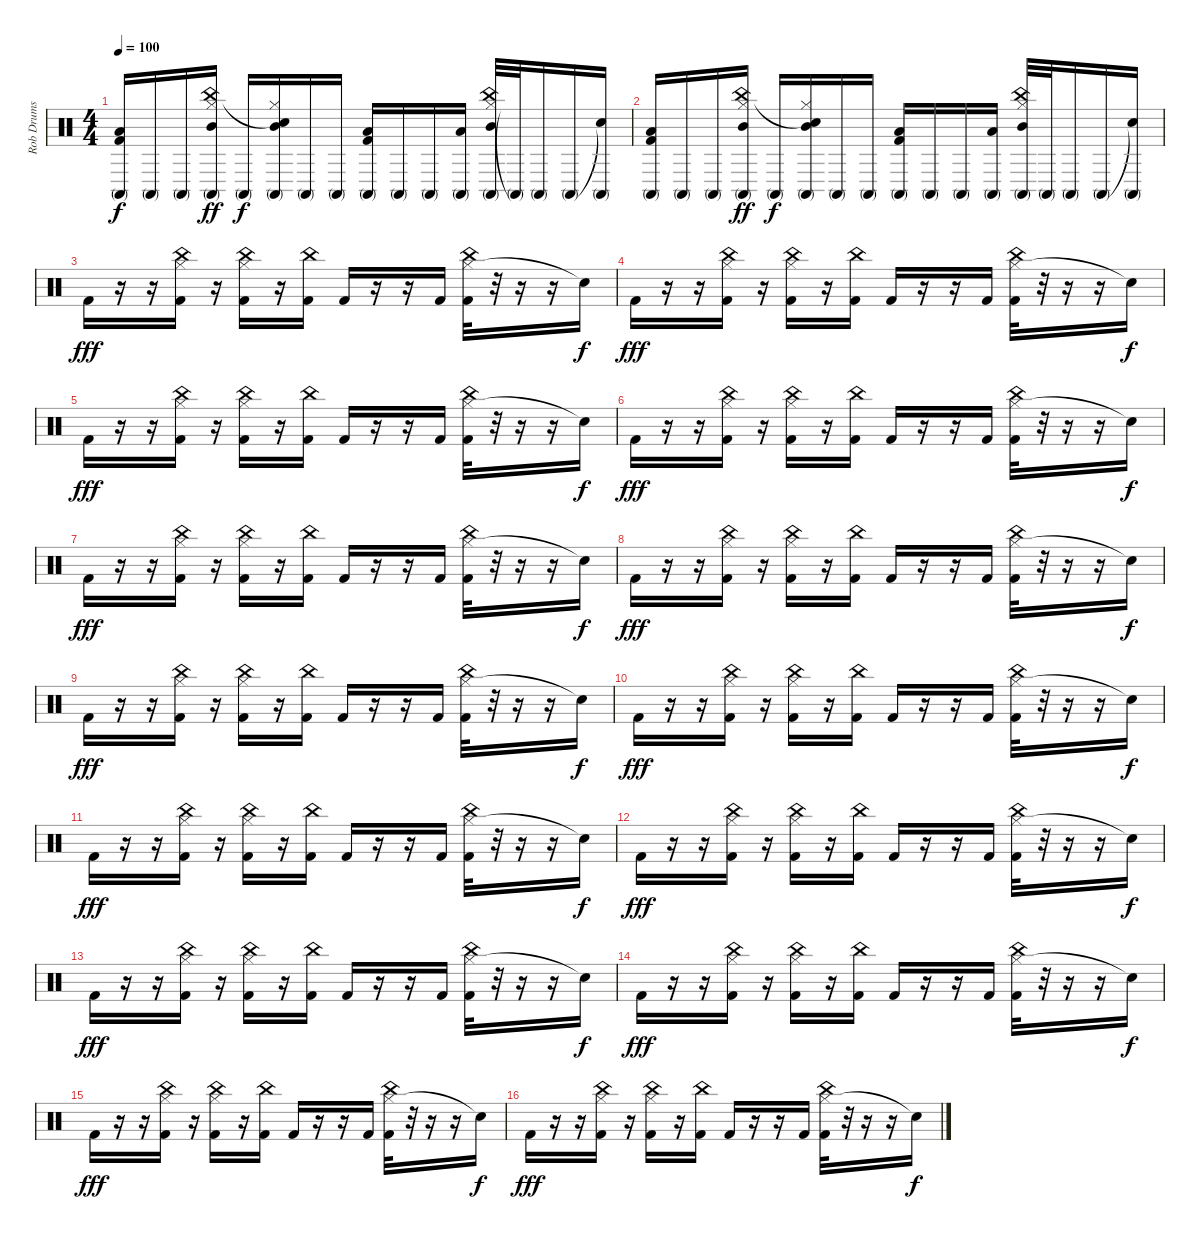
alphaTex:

\track ("Rob Drums" "Rob Drums") {instrument percussion}
\staff {score}
\articulation defaults
\ts (4 4)
\tempo 100
\clef neutral
\ks c
("Kick (hit) 2" "Low Tom (hit)" "Conga high (mute)").16{dy f} "Conga high (mute)".16 "Conga high (mute)".16 ("Hi-Hat (closed)" "China (hit)" "Mid Tom (hit)" "Conga high (mute)").16{dy ff} "Conga high (mute)".16{dy f} ("Hi-Hat (closed)" "Snare (hit)"{t} "Mid Tom (hit)" "Conga high (mute)").16 "Conga high (mute)".16 "Conga high (mute)".16 ("Kick (hit) 2" "Low Tom (hit)" "Conga high (mute)").16 "Conga high (mute)".16 "Conga high (mute)".16 ("Low Tom (hit)" "Conga high (mute)").16 ("Hi-Hat (closed)" "China (hit)" "Mid Tom (hit)" "Conga high (mute)").32 "Conga high (mute)"{t}.32 "Conga high (mute)".16 "Conga high (mute)".16 ("Snare (hit)"{t} "Conga high (mute)").16 |
("Kick (hit) 2" "Low Tom (hit)" "Conga high (mute)").16 "Conga high (mute)".16 "Conga high (mute)".16 ("Hi-Hat (closed)" "China (hit)" "Mid Tom (hit)" "Conga high (mute)").16{dy ff} "Conga high (mute)".16{dy f} ("Hi-Hat (closed)" "Snare (hit)"{t} "Mid Tom (hit)" "Conga high (mute)").16 "Conga high (mute)".16 "Conga high (mute)".16 ("Kick (hit) 2" "Low Tom (hit)" "Conga high (mute)").16 "Conga high (mute)".16 "Conga high (mute)".16 ("Low Tom (hit)" "Conga high (mute)").16 ("Hi-Hat (closed)" "China (hit)" "Mid Tom (hit)" "Conga high (mute)").32 "Conga high (mute)".32 "Conga high (mute)".16 "Conga high (mute)".16 ("Snare (hit)"{t} "Conga high (mute)").16 |
"Kick (hit) 2".16{dy fff volume 13} r.16 r.16 ("Hi-Hat (closed)" "China (hit)" "Kick (hit) 2").16 r.16 ("Hi-Hat (closed)" "China (hit)" "Kick (hit) 2").16 r.16 ("China (hit)" "Kick (hit) 2").16 "Kick (hit) 2".16 r.16 r.16 "Kick (hit) 2".16 ("Hi-Hat (closed)" "China (hit)" "Kick (hit) 2").32 r.32 r.16 r.16 "Snare (hit)"{t}.16{dy f} |
"Kick (hit) 2".16{dy fff} r.16 r.16 ("Hi-Hat (closed)" "China (hit)" "Kick (hit) 2").16 r.16 ("Hi-Hat (closed)" "China (hit)" "Kick (hit) 2").16 r.16 ("China (hit)" "Kick (hit) 2").16 "Kick (hit) 2".16 r.16 r.16 "Kick (hit) 2".16 ("Hi-Hat (closed)" "China (hit)" "Kick (hit) 2").32 r.32 r.16 r.16 "Snare (hit)"{t}.16{dy f} |
"Kick (hit) 2".16{dy fff} r.16 r.16 ("Hi-Hat (closed)" "China (hit)" "Kick (hit) 2").16 r.16 ("Hi-Hat (closed)" "China (hit)" "Kick (hit) 2").16 r.16 ("China (hit)" "Kick (hit) 2").16 "Kick (hit) 2".16 r.16 r.16 "Kick (hit) 2".16 ("Hi-Hat (closed)" "China (hit)" "Kick (hit) 2").32 r.32 r.16 r.16 "Snare (hit)"{t}.16{dy f} |
"Kick (hit) 2".16{dy fff} r.16 r.16 ("Hi-Hat (closed)" "China (hit)" "Kick (hit) 2").16 r.16 ("Hi-Hat (closed)" "China (hit)" "Kick (hit) 2").16 r.16 ("China (hit)" "Kick (hit) 2").16 "Kick (hit) 2".16 r.16 r.16 "Kick (hit) 2".16 ("Hi-Hat (closed)" "China (hit)" "Kick (hit) 2").32 r.32 r.16 r.16 "Snare (hit)"{t}.16{dy f} |
"Kick (hit) 2".16{dy fff volume 13} r.16 r.16 ("Hi-Hat (closed)" "China (hit)" "Kick (hit) 2").16 r.16 ("Hi-Hat (closed)" "China (hit)" "Kick (hit) 2").16 r.16 ("China (hit)" "Kick (hit) 2").16 "Kick (hit) 2".16 r.16 r.16 "Kick (hit) 2".16 ("Hi-Hat (closed)" "China (hit)" "Kick (hit) 2").32 r.32 r.16 r.16 "Snare (hit)"{t}.16{dy f} |
"Kick (hit) 2".16{dy fff} r.16 r.16 ("Hi-Hat (closed)" "China (hit)" "Kick (hit) 2").16 r.16 ("Hi-Hat (closed)" "China (hit)" "Kick (hit) 2").16 r.16 ("China (hit)" "Kick (hit) 2").16 "Kick (hit) 2".16 r.16 r.16 "Kick (hit) 2".16 ("Hi-Hat (closed)" "China (hit)" "Kick (hit) 2").32 r.32 r.16 r.16 "Snare (hit)"{t}.16{dy f} |
"Kick (hit) 2".16{dy fff} r.16 r.16 ("Hi-Hat (closed)" "China (hit)" "Kick (hit) 2").16 r.16 ("Hi-Hat (closed)" "China (hit)" "Kick (hit) 2").16 r.16 ("China (hit)" "Kick (hit) 2").16 "Kick (hit) 2".16 r.16 r.16 "Kick (hit) 2".16 ("Hi-Hat (closed)" "China (hit)" "Kick (hit) 2").32 r.32 r.16 r.16 "Snare (hit)"{t}.16{dy f} |
"Kick (hit) 2".16{dy fff} r.16 r.16 ("Hi-Hat (closed)" "China (hit)" "Kick (hit) 2").16 r.16 ("Hi-Hat (closed)" "China (hit)" "Kick (hit) 2").16 r.16 ("China (hit)" "Kick (hit) 2").16 "Kick (hit) 2".16 r.16 r.16 "Kick (hit) 2".16 ("Hi-Hat (closed)" "China (hit)" "Kick (hit) 2").32 r.32 r.16 r.16 "Snare (hit)"{t}.16{dy f} |
"Kick (hit) 2".16{dy fff volume 13} r.16 r.16 ("Hi-Hat (closed)" "China (hit)" "Kick (hit) 2").16 r.16 ("Hi-Hat (closed)" "China (hit)" "Kick (hit) 2").16 r.16 ("China (hit)" "Kick (hit) 2").16 "Kick (hit) 2".16 r.16 r.16 "Kick (hit) 2".16 ("Hi-Hat (closed)" "China (hit)" "Kick (hit) 2").32 r.32 r.16 r.16 "Snare (hit)"{t}.16{dy f} |
"Kick (hit) 2".16{dy fff} r.16 r.16 ("Hi-Hat (closed)" "China (hit)" "Kick (hit) 2").16 r.16 ("Hi-Hat (closed)" "China (hit)" "Kick (hit) 2").16 r.16 ("China (hit)" "Kick (hit) 2").16 "Kick (hit) 2".16 r.16 r.16 "Kick (hit) 2".16 ("Hi-Hat (closed)" "China (hit)" "Kick (hit) 2").32 r.32 r.16 r.16 "Snare (hit)"{t}.16{dy f} |
"Kick (hit) 2".16{dy fff} r.16 r.16 ("Hi-Hat (closed)" "China (hit)" "Kick (hit) 2").16 r.16 ("Hi-Hat (closed)" "China (hit)" "Kick (hit) 2").16 r.16 ("China (hit)" "Kick (hit) 2").16 "Kick (hit) 2".16 r.16 r.16 "Kick (hit) 2".16 ("Hi-Hat (closed)" "China (hit)" "Kick (hit) 2").32 r.32 r.16 r.16 "Snare (hit)"{t}.16{dy f} |
"Kick (hit) 2".16{dy fff} r.16 r.16 ("Hi-Hat (closed)" "China (hit)" "Kick (hit) 2").16 r.16 ("Hi-Hat (closed)" "China (hit)" "Kick (hit) 2").16 r.16 ("China (hit)" "Kick (hit) 2").16 "Kick (hit) 2".16 r.16 r.16 "Kick (hit) 2".16 ("Hi-Hat (closed)" "China (hit)" "Kick (hit) 2").32 r.32 r.16 r.16 "Snare (hit)"{t}.16{dy f} |
"Kick (hit) 2".16{dy fff volume 13} r.16 r.16 ("Hi-Hat (closed)" "China (hit)" "Kick (hit) 2").16 r.16 ("Hi-Hat (closed)" "China (hit)" "Kick (hit) 2").16 r.16 ("China (hit)" "Kick (hit) 2").16 "Kick (hit) 2".16 r.16 r.16 "Kick (hit) 2".16 ("Hi-Hat (closed)" "China (hit)" "Kick (hit) 2").32 r.32 r.16 r.16 "Snare (hit)"{t}.16{dy f} |
"Kick (hit) 2".16{dy fff} r.16 r.16 ("Hi-Hat (closed)" "China (hit)" "Kick (hit) 2").16 r.16 ("Hi-Hat (closed)" "China (hit)" "Kick (hit) 2").16 r.16 ("China (hit)" "Kick (hit) 2").16 "Kick (hit) 2".16 r.16 r.16 "Kick (hit) 2".16 ("Hi-Hat (closed)" "China (hit)" "Kick (hit) 2").32 r.32 r.16 r.16 "Snare (hit)"{t}.16{dy f}
